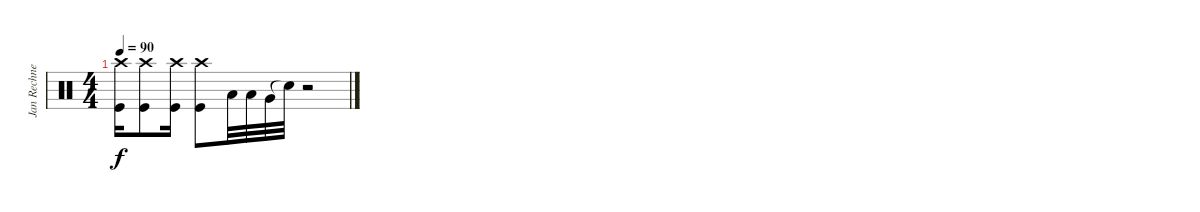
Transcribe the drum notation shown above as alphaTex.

\track ("Jan Rechnerger" "Jan Rechne") {instrument percussion}
\staff {score}
\articulation defaults
\ts (4 4)
\tempo 90
\clef neutral
\ks c
("Kick (hit)" "Crash high (hit)").16{dy f} ("Kick (hit)" "Crash high (hit)").8 ("Kick (hit)" "Crash high (hit)").16 ("Kick (hit)" "Crash high (hit)").8 "Low Tom (hit)".32 "Low Tom (hit)".32 "Very Low Tom (hit)".32 "Snare (hit)"{t}.32 r.2
